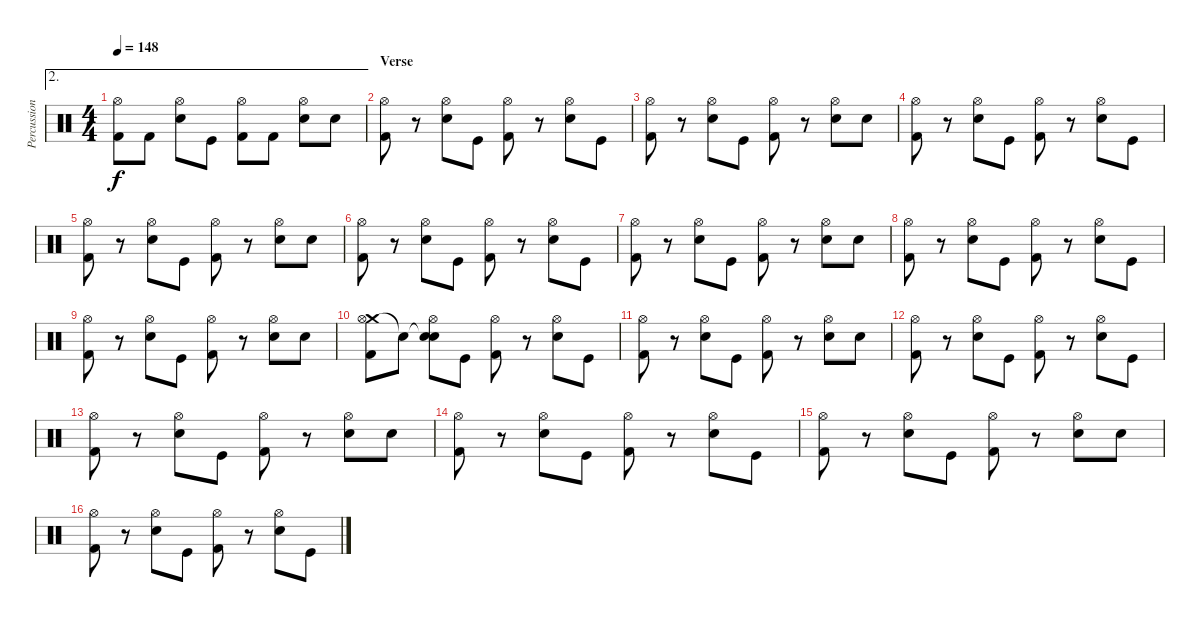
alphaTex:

\track ("Percussion" "Percussion") {instrument percussion}
\staff {score}
\articulation defaults
\ae 2
\ts (4 4)
\tempo 148
\clef neutral
\ks c
("Hi-Hat (open)" "Kick (hit) 2").8{dy f} "Kick (hit) 2".8 ("Hi-Hat (open)" "Snare (hit) 2").8 "Kick (hit)".8 ("Hi-Hat (open)" "Kick (hit) 2").8 "Kick (hit) 2".8 ("Hi-Hat (open)" "Snare (hit) 2").8 "Snare (hit) 2".8 |
\section ("" "Verse")
("Hi-Hat (open)" "Kick (hit) 2").8 r.8 ("Hi-Hat (open)" "Snare (hit) 2").8 "Kick (hit)".8 ("Hi-Hat (open)" "Kick (hit) 2").8 r.8 ("Hi-Hat (open)" "Snare (hit) 2").8 "Kick (hit)".8 |
("Hi-Hat (open)" "Kick (hit) 2").8 r.8 ("Hi-Hat (open)" "Snare (hit) 2").8 "Kick (hit)".8 ("Hi-Hat (open)" "Kick (hit) 2").8 r.8 ("Hi-Hat (open)" "Snare (hit) 2").8 "Snare (hit) 2".8 |
("Hi-Hat (open)" "Kick (hit) 2").8 r.8 ("Hi-Hat (open)" "Snare (hit) 2").8 "Kick (hit)".8 ("Hi-Hat (open)" "Kick (hit) 2").8 r.8 ("Hi-Hat (open)" "Snare (hit) 2").8 "Kick (hit)".8 |
("Hi-Hat (open)" "Kick (hit) 2").8 r.8 ("Hi-Hat (open)" "Snare (hit) 2").8 "Kick (hit)".8 ("Hi-Hat (open)" "Kick (hit) 2").8 r.8 ("Hi-Hat (open)" "Snare (hit) 2").8 "Snare (hit) 2".8 |
("Hi-Hat (open)" "Kick (hit) 2").8 r.8 ("Hi-Hat (open)" "Snare (hit) 2").8 "Kick (hit)".8 ("Hi-Hat (open)" "Kick (hit) 2").8 r.8 ("Hi-Hat (open)" "Snare (hit) 2").8 "Kick (hit)".8 |
("Hi-Hat (open)" "Kick (hit) 2").8 r.8 ("Hi-Hat (open)" "Snare (hit) 2").8 "Kick (hit)".8 ("Hi-Hat (open)" "Kick (hit) 2").8 r.8 ("Hi-Hat (open)" "Snare (hit) 2").8 "Snare (hit) 2".8 |
("Hi-Hat (open)" "Kick (hit) 2").8 r.8 ("Hi-Hat (open)" "Snare (hit) 2").8 "Kick (hit)".8 ("Hi-Hat (open)" "Kick (hit) 2").8 r.8 ("Hi-Hat (open)" "Snare (hit) 2").8 "Kick (hit)".8 |
("Hi-Hat (open)" "Kick (hit) 2").8 r.8 ("Hi-Hat (open)" "Snare (hit) 2").8 "Kick (hit)".8 ("Hi-Hat (open)" "Kick (hit) 2").8 r.8 ("Hi-Hat (open)" "Snare (hit) 2").8 "Snare (hit) 2".8 |
("Crash medium (hit)" "Hi-Hat (open)" "Kick (hit) 2").8 "Snare (hit)"{t}.8 ("Snare (hit)"{t} "Hi-Hat (open)" "Snare (hit) 2").8 "Kick (hit)".8 ("Hi-Hat (open)" "Kick (hit) 2").8 r.8 ("Hi-Hat (open)" "Snare (hit) 2").8 "Kick (hit)".8 |
("Hi-Hat (open)" "Kick (hit) 2").8 r.8 ("Hi-Hat (open)" "Snare (hit) 2").8 "Kick (hit)".8 ("Hi-Hat (open)" "Kick (hit) 2").8 r.8 ("Hi-Hat (open)" "Snare (hit) 2").8 "Snare (hit) 2".8 |
("Hi-Hat (open)" "Kick (hit) 2").8 r.8 ("Hi-Hat (open)" "Snare (hit) 2").8 "Kick (hit)".8 ("Hi-Hat (open)" "Kick (hit) 2").8 r.8 ("Hi-Hat (open)" "Snare (hit) 2").8 "Kick (hit)".8 |
("Hi-Hat (open)" "Kick (hit) 2").8 r.8 ("Hi-Hat (open)" "Snare (hit) 2").8 "Kick (hit)".8 ("Hi-Hat (open)" "Kick (hit) 2").8 r.8 ("Hi-Hat (open)" "Snare (hit) 2").8 "Snare (hit) 2".8 |
("Hi-Hat (open)" "Kick (hit) 2").8 r.8 ("Hi-Hat (open)" "Snare (hit) 2").8 "Kick (hit)".8 ("Hi-Hat (open)" "Kick (hit) 2").8 r.8 ("Hi-Hat (open)" "Snare (hit) 2").8 "Kick (hit)".8 |
("Hi-Hat (open)" "Kick (hit) 2").8 r.8 ("Hi-Hat (open)" "Snare (hit) 2").8 "Kick (hit)".8 ("Hi-Hat (open)" "Kick (hit) 2").8 r.8 ("Hi-Hat (open)" "Snare (hit) 2").8 "Snare (hit) 2".8 |
("Hi-Hat (open)" "Kick (hit) 2").8 r.8 ("Hi-Hat (open)" "Snare (hit) 2").8 "Kick (hit)".8 ("Hi-Hat (open)" "Kick (hit) 2").8 r.8 ("Hi-Hat (open)" "Snare (hit) 2").8 "Kick (hit)".8
